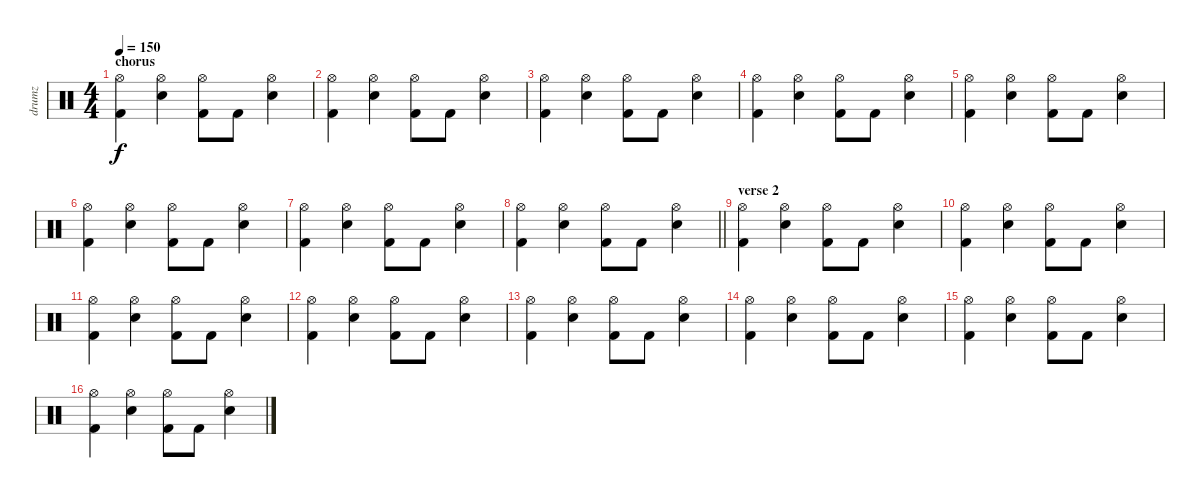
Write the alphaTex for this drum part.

\track ("drumz" "drumz") {instrument percussion}
\staff {score}
\articulation defaults
\ts (4 4)
\section ("" "chorus")
\tempo 150
\clef neutral
\ks c
("Hi-Hat (open)" "Kick (hit) 2").4{dy f} ("Hi-Hat (open)" "Electric Snare (hit)").4 ("Hi-Hat (open)" "Kick (hit) 2").8 "Kick (hit) 2".8 ("Hi-Hat (open)" "Electric Snare (hit)").4 |
("Hi-Hat (open)" "Kick (hit) 2").4 ("Hi-Hat (open)" "Electric Snare (hit)").4 ("Hi-Hat (open)" "Kick (hit) 2").8 "Kick (hit) 2".8 ("Hi-Hat (open)" "Electric Snare (hit)").4 |
("Hi-Hat (open)" "Kick (hit) 2").4 ("Hi-Hat (open)" "Electric Snare (hit)").4 ("Hi-Hat (open)" "Kick (hit) 2").8 "Kick (hit) 2".8 ("Hi-Hat (open)" "Electric Snare (hit)").4 |
("Hi-Hat (open)" "Kick (hit) 2").4 ("Hi-Hat (open)" "Electric Snare (hit)").4 ("Hi-Hat (open)" "Kick (hit) 2").8 "Kick (hit) 2".8 ("Hi-Hat (open)" "Electric Snare (hit)").4 |
("Hi-Hat (open)" "Kick (hit) 2").4 ("Hi-Hat (open)" "Electric Snare (hit)").4 ("Hi-Hat (open)" "Kick (hit) 2").8 "Kick (hit) 2".8 ("Hi-Hat (open)" "Electric Snare (hit)").4 |
("Hi-Hat (open)" "Kick (hit) 2").4 ("Hi-Hat (open)" "Electric Snare (hit)").4 ("Hi-Hat (open)" "Kick (hit) 2").8 "Kick (hit) 2".8 ("Hi-Hat (open)" "Electric Snare (hit)").4 |
("Hi-Hat (open)" "Kick (hit) 2").4 ("Hi-Hat (open)" "Electric Snare (hit)").4 ("Hi-Hat (open)" "Kick (hit) 2").8 "Kick (hit) 2".8 ("Hi-Hat (open)" "Electric Snare (hit)").4 |
\barLineRight lightlight
("Hi-Hat (open)" "Kick (hit) 2").4 ("Hi-Hat (open)" "Electric Snare (hit)").4 ("Hi-Hat (open)" "Kick (hit) 2").8 "Kick (hit) 2".8 ("Hi-Hat (open)" "Electric Snare (hit)").4 |
\section ("" "verse 2")
("Hi-Hat (open)" "Kick (hit) 2").4 ("Hi-Hat (open)" "Electric Snare (hit)").4 ("Hi-Hat (open)" "Kick (hit) 2").8 "Kick (hit) 2".8 ("Hi-Hat (open)" "Electric Snare (hit)").4 |
("Hi-Hat (open)" "Kick (hit) 2").4 ("Hi-Hat (open)" "Electric Snare (hit)").4 ("Hi-Hat (open)" "Kick (hit) 2").8 "Kick (hit) 2".8 ("Hi-Hat (open)" "Electric Snare (hit)").4 |
("Hi-Hat (open)" "Kick (hit) 2").4 ("Hi-Hat (open)" "Electric Snare (hit)").4 ("Hi-Hat (open)" "Kick (hit) 2").8 "Kick (hit) 2".8 ("Hi-Hat (open)" "Electric Snare (hit)").4 |
("Hi-Hat (open)" "Kick (hit) 2").4 ("Hi-Hat (open)" "Electric Snare (hit)").4 ("Hi-Hat (open)" "Kick (hit) 2").8 "Kick (hit) 2".8 ("Hi-Hat (open)" "Electric Snare (hit)").4 |
("Hi-Hat (open)" "Kick (hit) 2").4 ("Hi-Hat (open)" "Electric Snare (hit)").4 ("Hi-Hat (open)" "Kick (hit) 2").8 "Kick (hit) 2".8 ("Hi-Hat (open)" "Electric Snare (hit)").4 |
("Hi-Hat (open)" "Kick (hit) 2").4 ("Hi-Hat (open)" "Electric Snare (hit)").4 ("Hi-Hat (open)" "Kick (hit) 2").8 "Kick (hit) 2".8 ("Hi-Hat (open)" "Electric Snare (hit)").4 |
("Hi-Hat (open)" "Kick (hit) 2").4 ("Hi-Hat (open)" "Electric Snare (hit)").4 ("Hi-Hat (open)" "Kick (hit) 2").8 "Kick (hit) 2".8 ("Hi-Hat (open)" "Electric Snare (hit)").4 |
("Hi-Hat (open)" "Kick (hit) 2").4 ("Hi-Hat (open)" "Electric Snare (hit)").4 ("Hi-Hat (open)" "Kick (hit) 2").8 "Kick (hit) 2".8 ("Hi-Hat (open)" "Electric Snare (hit)").4
